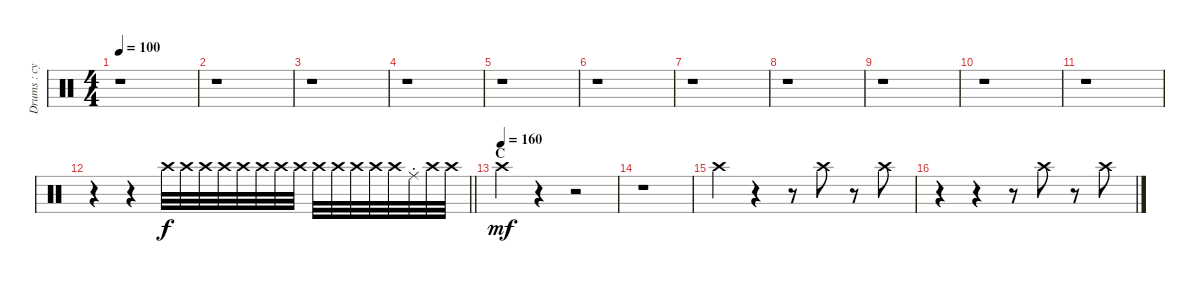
\track ("Drums : cymbals" "Drums : cy") {instrument percussion}
\staff {score}
\articulation defaults
\ts (4 4)
\tempo 100
\clef neutral
\ks c
r.1{dy f} |
r.1 |
r.1 |
r.1 |
r.1 |
r.1 |
r.1 |
r.1 |
r.1 |
r.1 |
r.1 |
\barLineRight lightlight
r.4{volume 0} r.4 "Crash high (hit)".32{volume 8} "Crash high (hit)".32 "Crash high (hit)".32 "Crash high (hit)".32 "Crash high (hit)".32 "Crash high (hit)".32 "Crash high (hit)".32 "Crash high (hit)".32 "Crash high (hit)".32 "Crash high (hit)".32 "Crash high (hit)".32 "Crash high (hit)".32 "Crash high (hit)".32 "Ride (choke)".32 "Crash high (hit)".32 "Crash high (hit)".32 |
\section ("" "C")
\tempo (160)
"Crash high (hit)".4{dy mf volume 13} r.4 r.2 |
r.1 |
"Crash high (hit)".4 r.4 r.8 "Crash high (hit)".8 r.8{volume 0} "Crash high (hit)".8{volume 13} |
r.4{volume 0} r.4 r.8 "Crash high (hit)".8{volume 13} r.8 "Crash high (hit)".8
